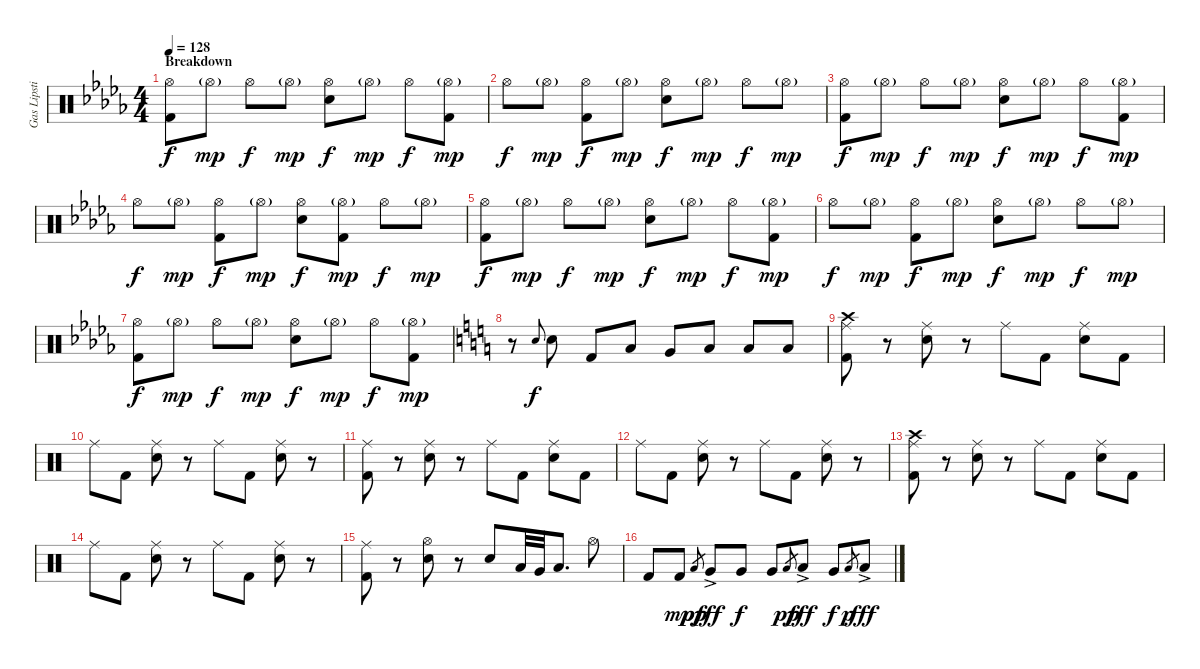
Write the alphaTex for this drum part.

\track ("Gas Lipstick (Drums)" "Gas Lipsti") {instrument percussion}
\staff {score}
\articulation defaults
\ts (4 4)
\section ("" "Breakdown")
\tempo 128
\clef neutral
\ks db
("Hi-Hat (open)" "Kick (hit) 2").8{dy f} "Hi-Hat (open)"{g}.8{dy mp} "Hi-Hat (open)".8{dy f} "Hi-Hat (open)"{g}.8{dy mp} ("Hi-Hat (open)" "Snare (hit) 2").8{dy f} "Hi-Hat (open)"{g}.8{dy mp} "Hi-Hat (open)".8{dy f} ("Hi-Hat (open)"{g} "Kick (hit) 2").8{dy mp} |
"Hi-Hat (open)".8{dy f} "Hi-Hat (open)"{g}.8{dy mp} ("Hi-Hat (open)" "Kick (hit) 2").8{dy f} "Hi-Hat (open)"{g}.8{dy mp} ("Hi-Hat (open)" "Snare (hit) 2").8{dy f} "Hi-Hat (open)"{g}.8{dy mp} "Hi-Hat (open)".8{dy f} "Hi-Hat (open)"{g}.8{dy mp} |
("Hi-Hat (open)" "Kick (hit) 2").8{dy f} "Hi-Hat (open)"{g}.8{dy mp} "Hi-Hat (open)".8{dy f} "Hi-Hat (open)"{g}.8{dy mp} ("Hi-Hat (open)" "Snare (hit) 2").8{dy f} "Hi-Hat (open)"{g}.8{dy mp} "Hi-Hat (open)".8{dy f} ("Hi-Hat (open)"{g} "Kick (hit) 2").8{dy mp} |
"Hi-Hat (open)".8{dy f} "Hi-Hat (open)"{g}.8{dy mp} ("Hi-Hat (open)" "Kick (hit) 2").8{dy f} "Hi-Hat (open)"{g}.8{dy mp} ("Hi-Hat (open)" "Snare (hit) 2").8{dy f} ("Hi-Hat (open)"{g} "Kick (hit) 2").8{dy mp} "Hi-Hat (open)".8{dy f} "Hi-Hat (open)"{g}.8{dy mp} |
("Hi-Hat (open)" "Kick (hit) 2").8{dy f} "Hi-Hat (open)"{g}.8{dy mp} "Hi-Hat (open)".8{dy f} "Hi-Hat (open)"{g}.8{dy mp} ("Hi-Hat (open)" "Snare (hit) 2").8{dy f} "Hi-Hat (open)"{g}.8{dy mp} "Hi-Hat (open)".8{dy f} ("Hi-Hat (open)"{g} "Kick (hit) 2").8{dy mp} |
"Hi-Hat (open)".8{dy f} "Hi-Hat (open)"{g}.8{dy mp} ("Hi-Hat (open)" "Kick (hit) 2").8{dy f} "Hi-Hat (open)"{g}.8{dy mp} ("Hi-Hat (open)" "Snare (hit) 2").8{dy f} "Hi-Hat (open)"{g}.8{dy mp} "Hi-Hat (open)".8{dy f} "Hi-Hat (open)"{g}.8{dy mp} |
("Hi-Hat (open)" "Kick (hit) 2").8{dy f} "Hi-Hat (open)"{g}.8{dy mp} "Hi-Hat (open)".8{dy f} "Hi-Hat (open)"{g}.8{dy mp} ("Hi-Hat (open)" "Snare (hit) 2").8{dy f} "Hi-Hat (open)"{g}.8{dy mp} "Hi-Hat (open)".8{dy f} ("Hi-Hat (open)"{g} "Kick (hit) 2").8{dy mp} |
\ks c
r.8 "Snare (hit) 2".8{gr onbeat dy f} "Snare (hit) 2".8 "Kick (hit) 2".8 "Low Floor Tom (hit)".8 "Very Low Tom (hit)".8 "Low Floor Tom (hit)".8 "Low Tom (hit)".8 "Low Floor Tom (hit)".8 |
("Crash high (hit)" "Ride (middle)" "Kick (hit) 2").8 r.8 ("Ride (middle)" "Snare (hit) 2").8 r.8 "Ride (middle)".8 "Kick (hit) 2".8 ("Ride (middle)" "Snare (hit) 2").8 "Kick (hit) 2".8 |
"Ride (middle)".8 "Kick (hit) 2".8 ("Ride (middle)" "Snare (hit) 2").8 r.8 "Ride (middle)".8 "Kick (hit) 2".8 ("Ride (middle)" "Snare (hit) 2").8 r.8 |
("Ride (middle)" "Kick (hit) 2").8 r.8 ("Ride (middle)" "Snare (hit) 2").8 r.8 "Ride (middle)".8 "Kick (hit) 2".8 ("Ride (middle)" "Snare (hit) 2").8 "Kick (hit) 2".8 |
"Ride (middle)".8 "Kick (hit) 2".8 ("Ride (middle)" "Snare (hit) 2").8 r.8 "Ride (middle)".8 "Kick (hit) 2".8 ("Ride (middle)" "Snare (hit) 2").8 r.8 |
("Crash high (hit)" "Ride (middle)" "Kick (hit) 2").8 r.8 ("Ride (middle)" "Snare (hit) 2").8 r.8 "Ride (middle)".8 "Kick (hit) 2".8 ("Ride (middle)" "Snare (hit) 2").8 "Kick (hit) 2".8 |
"Ride (middle)".8 "Kick (hit) 2".8 ("Ride (middle)" "Snare (hit) 2").8 r.8 "Ride (middle)".8 "Kick (hit) 2".8 ("Ride (middle)" "Snare (hit) 2").8 r.8 |
("Ride (middle)" "Kick (hit) 2").8 r.8 ("Hi-Hat (open)" "Snare (hit) 2").8 r.8 "Snare (hit) 2".8 "Low Tom (hit)".32 "Very Low Tom (hit)".32 "Low Floor Tom (hit)".8{d} "Hi-Hat (open)".8 |
"Kick (hit) 2".8 "Kick (hit) 2".8{dy mp} "Low Tom (hit)".8{gr dy pp} "Very Low Tom (hit)"{ac}.8{dy fff} "Very Low Tom (hit)".8{dy f} "Very Low Tom (hit)".8 "Low Tom (hit)".8{gr dy pp} "Low Tom (hit)"{ac}.8{dy fff} "Very Low Tom (hit)".8{dy f} "Low Tom (hit)".8{gr dy p} "Low Tom (hit)"{ac}.8{dy fff}
